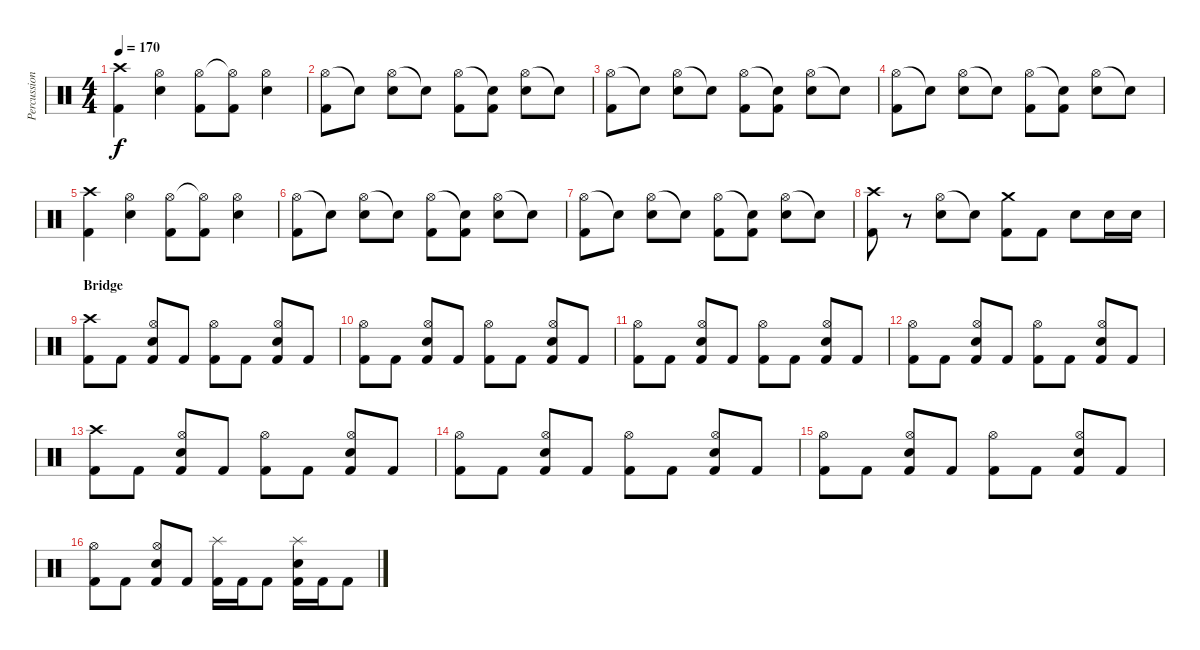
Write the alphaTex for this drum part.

\track ("Percussion" "Percussion") {instrument percussion}
\staff {score}
\articulation defaults
\ts (4 4)
\tempo 170
\clef neutral
\ks c
("Crash high (hit)" "Kick (hit) 2").4{dy f} ("Hi-Hat (open)" "Electric Snare (hit)").4 ("Hi-Hat (open)" "Kick (hit) 2").8 ("Hi-Hat (open)"{t} "Kick (hit) 2").8 ("Hi-Hat (open)" "Electric Snare (hit)").4 |
("Hi-Hat (open)" "Kick (hit) 2").8 "Snare (hit)"{t}.8 ("Hi-Hat (open)" "Electric Snare (hit)").8 "Snare (hit)"{t}.8 ("Hi-Hat (open)" "Kick (hit) 2").8 ("Snare (hit)"{t} "Kick (hit) 2").8 ("Hi-Hat (open)" "Electric Snare (hit)").8 "Snare (hit)"{t}.8 |
("Hi-Hat (open)" "Kick (hit) 2").8 "Snare (hit)"{t}.8 ("Hi-Hat (open)" "Electric Snare (hit)").8 "Snare (hit)"{t}.8 ("Hi-Hat (open)" "Kick (hit) 2").8 ("Snare (hit)"{t} "Kick (hit) 2").8 ("Hi-Hat (open)" "Electric Snare (hit)").8 "Snare (hit)"{t}.8 |
("Hi-Hat (open)" "Kick (hit) 2").8 "Snare (hit)"{t}.8 ("Hi-Hat (open)" "Electric Snare (hit)").8 "Snare (hit)"{t}.8 ("Hi-Hat (open)" "Kick (hit) 2").8 ("Snare (hit)"{t} "Kick (hit) 2").8 ("Hi-Hat (open)" "Electric Snare (hit)").8 "Snare (hit)"{t}.8 |
("Crash high (hit)" "Kick (hit) 2").4 ("Hi-Hat (open)" "Electric Snare (hit)").4 ("Hi-Hat (open)" "Kick (hit) 2").8 ("Hi-Hat (open)"{t} "Kick (hit) 2").8 ("Hi-Hat (open)" "Electric Snare (hit)").4 |
("Hi-Hat (open)" "Kick (hit) 2").8 "Snare (hit)"{t}.8 ("Hi-Hat (open)" "Electric Snare (hit)").8 "Snare (hit)"{t}.8 ("Hi-Hat (open)" "Kick (hit) 2").8 ("Snare (hit)"{t} "Kick (hit) 2").8 ("Hi-Hat (open)" "Electric Snare (hit)").8 "Snare (hit)"{t}.8 |
("Hi-Hat (open)" "Kick (hit) 2").8 "Snare (hit)"{t}.8 ("Hi-Hat (open)" "Electric Snare (hit)").8 "Snare (hit)"{t}.8 ("Hi-Hat (open)" "Kick (hit) 2").8 ("Snare (hit)"{t} "Kick (hit) 2").8 ("Hi-Hat (open)" "Electric Snare (hit)").8 "Snare (hit)"{t}.8 |
("Crash high (hit)" "Kick (hit) 2").8 r.8 ("Hi-Hat (open)" "Electric Snare (hit)").8 "Snare (hit)"{t}.8 ("Crash medium (hit)" "Kick (hit) 2").8 "Kick (hit) 2".8 "Electric Snare (hit)".8 "Electric Snare (hit)".16 "Electric Snare (hit)".16 |
\section ("" "Bridge")
("Crash high (hit)" "Kick (hit) 2").8 "Kick (hit) 2".8 ("Hi-Hat (open)" "Electric Snare (hit)" "Kick (hit) 2").8 "Kick (hit) 2".8 ("Hi-Hat (open)" "Kick (hit) 2").8 "Kick (hit) 2".8 ("Hi-Hat (open)" "Electric Snare (hit)" "Kick (hit) 2").8 "Kick (hit) 2".8 |
("Hi-Hat (open)" "Kick (hit) 2").8 "Kick (hit) 2".8 ("Hi-Hat (open)" "Electric Snare (hit)" "Kick (hit) 2").8 "Kick (hit) 2".8 ("Hi-Hat (open)" "Kick (hit) 2").8 "Kick (hit) 2".8 ("Hi-Hat (open)" "Electric Snare (hit)" "Kick (hit) 2").8 "Kick (hit) 2".8 |
("Hi-Hat (open)" "Kick (hit) 2").8 "Kick (hit) 2".8 ("Hi-Hat (open)" "Electric Snare (hit)" "Kick (hit) 2").8 "Kick (hit) 2".8 ("Hi-Hat (open)" "Kick (hit) 2").8 "Kick (hit) 2".8 ("Hi-Hat (open)" "Electric Snare (hit)" "Kick (hit) 2").8 "Kick (hit) 2".8 |
("Hi-Hat (open)" "Kick (hit) 2").8 "Kick (hit) 2".8 ("Hi-Hat (open)" "Electric Snare (hit)" "Kick (hit) 2").8 "Kick (hit) 2".8 ("Hi-Hat (open)" "Kick (hit) 2").8 "Kick (hit) 2".8 ("Hi-Hat (open)" "Electric Snare (hit)" "Kick (hit) 2").8 "Kick (hit) 2".8 |
("Crash high (hit)" "Kick (hit) 2").8 "Kick (hit) 2".8 ("Hi-Hat (open)" "Electric Snare (hit)" "Kick (hit) 2").8 "Kick (hit) 2".8 ("Hi-Hat (open)" "Kick (hit) 2").8 "Kick (hit) 2".8 ("Hi-Hat (open)" "Electric Snare (hit)" "Kick (hit) 2").8 "Kick (hit) 2".8 |
("Hi-Hat (open)" "Kick (hit) 2").8 "Kick (hit) 2".8 ("Hi-Hat (open)" "Electric Snare (hit)" "Kick (hit) 2").8 "Kick (hit) 2".8 ("Hi-Hat (open)" "Kick (hit) 2").8 "Kick (hit) 2".8 ("Hi-Hat (open)" "Electric Snare (hit)" "Kick (hit) 2").8 "Kick (hit) 2".8 |
("Hi-Hat (open)" "Kick (hit) 2").8 "Kick (hit) 2".8 ("Hi-Hat (open)" "Electric Snare (hit)" "Kick (hit) 2").8 "Kick (hit) 2".8 ("Hi-Hat (open)" "Kick (hit) 2").8 "Kick (hit) 2".8 ("Hi-Hat (open)" "Electric Snare (hit)" "Kick (hit) 2").8 "Kick (hit) 2".8 |
("Hi-Hat (open)" "Kick (hit) 2").8 "Kick (hit) 2".8 ("Hi-Hat (open)" "Electric Snare (hit)" "Kick (hit) 2").8 "Kick (hit) 2".8 ("Splash (hit)" "Kick (hit) 2").16 "Kick (hit) 2".16 "Kick (hit) 2".8 ("Splash (hit)" "Electric Snare (hit)" "Kick (hit) 2").16 "Kick (hit) 2".16 "Kick (hit) 2".8
